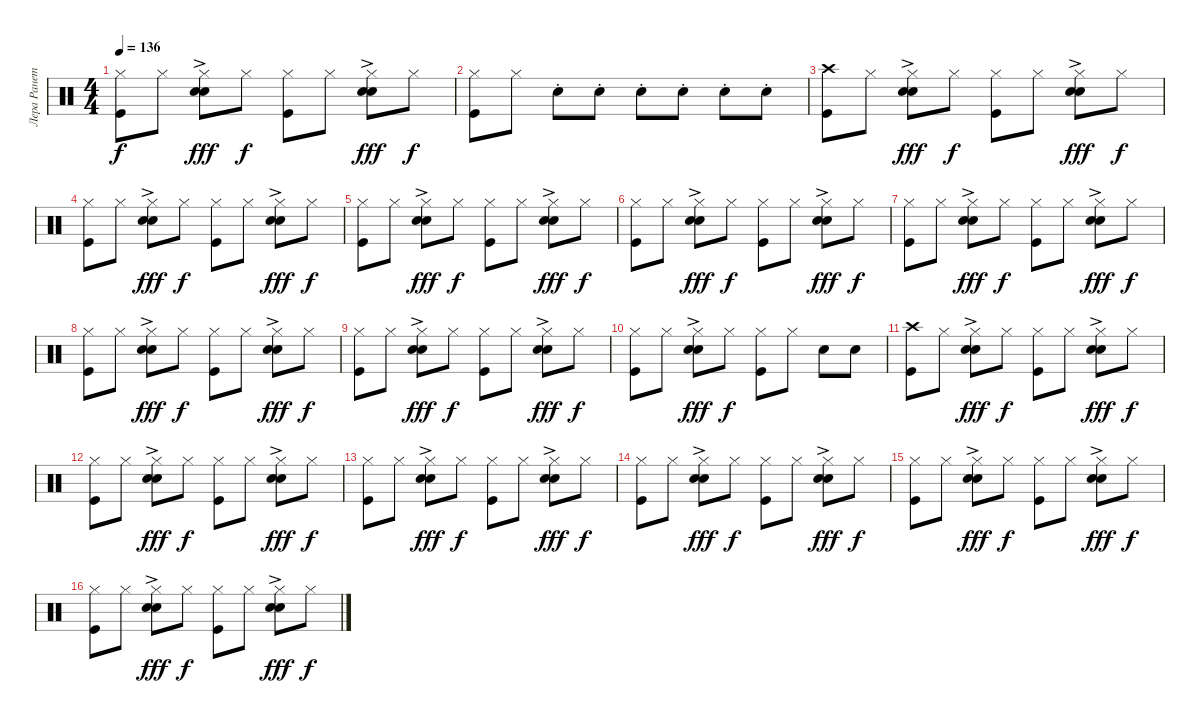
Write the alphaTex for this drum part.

\track ("Лера Ранетка" "Лера Ранет") {instrument percussion}
\staff {score}
\articulation defaults
\ts (4 4)
\tempo 136
\clef neutral
\ks c
("Hi-Hat (closed)" "Kick (hit)").8{dy f} "Hi-Hat (closed)".8 ("Hi-Hat (closed)" "Electric Snare (hit)" "Hand Clap (hit)"{ac}).8{dy fff} "Hi-Hat (closed)".8{dy f} ("Hi-Hat (closed)" "Kick (hit)").8 "Hi-Hat (closed)".8 ("Hi-Hat (closed)" "Electric Snare (hit)" "Hand Clap (hit)"{ac}).8{dy fff} "Hi-Hat (closed)".8{dy f} |
("Hi-Hat (closed)" "Kick (hit)").8 "Hi-Hat (closed)".8 "Electric Snare (hit)"{st}.8 "Electric Snare (hit)"{st}.8 "Electric Snare (hit)"{st}.8 "Electric Snare (hit)"{st}.8 "Electric Snare (hit)"{st}.8 "Electric Snare (hit)"{st}.8 |
("Crash high (hit)" "Kick (hit)").8 "Hi-Hat (closed)".8 ("Hi-Hat (closed)" "Electric Snare (hit)" "Hand Clap (hit)"{ac}).8{dy fff} "Hi-Hat (closed)".8{dy f} ("Hi-Hat (closed)" "Kick (hit)").8 "Hi-Hat (closed)".8 ("Hi-Hat (closed)" "Electric Snare (hit)" "Hand Clap (hit)"{ac}).8{dy fff} "Hi-Hat (closed)".8{dy f} |
("Hi-Hat (closed)" "Kick (hit)").8 "Hi-Hat (closed)".8 ("Hi-Hat (closed)" "Electric Snare (hit)" "Hand Clap (hit)"{ac}).8{dy fff} "Hi-Hat (closed)".8{dy f} ("Hi-Hat (closed)" "Kick (hit)").8 "Hi-Hat (closed)".8 ("Hi-Hat (closed)" "Electric Snare (hit)" "Hand Clap (hit)"{ac}).8{dy fff} "Hi-Hat (closed)".8{dy f} |
("Hi-Hat (closed)" "Kick (hit)").8 "Hi-Hat (closed)".8 ("Hi-Hat (closed)" "Electric Snare (hit)" "Hand Clap (hit)"{ac}).8{dy fff} "Hi-Hat (closed)".8{dy f} ("Hi-Hat (closed)" "Kick (hit)").8 "Hi-Hat (closed)".8 ("Hi-Hat (closed)" "Electric Snare (hit)" "Hand Clap (hit)"{ac}).8{dy fff} "Hi-Hat (closed)".8{dy f} |
("Hi-Hat (closed)" "Kick (hit)").8 "Hi-Hat (closed)".8 ("Hi-Hat (closed)" "Electric Snare (hit)" "Hand Clap (hit)"{ac}).8{dy fff} "Hi-Hat (closed)".8{dy f} ("Hi-Hat (closed)" "Kick (hit)").8 "Hi-Hat (closed)".8 ("Hi-Hat (closed)" "Electric Snare (hit)" "Hand Clap (hit)"{ac}).8{dy fff} "Hi-Hat (closed)".8{dy f} |
("Hi-Hat (closed)" "Kick (hit)").8 "Hi-Hat (closed)".8 ("Hi-Hat (closed)" "Electric Snare (hit)" "Hand Clap (hit)"{ac}).8{dy fff} "Hi-Hat (closed)".8{dy f} ("Hi-Hat (closed)" "Kick (hit)").8 "Hi-Hat (closed)".8 ("Hi-Hat (closed)" "Electric Snare (hit)" "Hand Clap (hit)"{ac}).8{dy fff} "Hi-Hat (closed)".8{dy f} |
("Hi-Hat (closed)" "Kick (hit)").8 "Hi-Hat (closed)".8 ("Hi-Hat (closed)" "Electric Snare (hit)" "Hand Clap (hit)"{ac}).8{dy fff} "Hi-Hat (closed)".8{dy f} ("Hi-Hat (closed)" "Kick (hit)").8 "Hi-Hat (closed)".8 ("Hi-Hat (closed)" "Electric Snare (hit)" "Hand Clap (hit)"{ac}).8{dy fff} "Hi-Hat (closed)".8{dy f} |
("Hi-Hat (closed)" "Kick (hit)").8 "Hi-Hat (closed)".8 ("Hi-Hat (closed)" "Electric Snare (hit)" "Hand Clap (hit)"{ac}).8{dy fff} "Hi-Hat (closed)".8{dy f} ("Hi-Hat (closed)" "Kick (hit)").8 "Hi-Hat (closed)".8 ("Hi-Hat (closed)" "Electric Snare (hit)" "Hand Clap (hit)"{ac}).8{dy fff} "Hi-Hat (closed)".8{dy f} |
("Hi-Hat (closed)" "Kick (hit)").8 "Hi-Hat (closed)".8 ("Hi-Hat (closed)" "Electric Snare (hit)" "Hand Clap (hit)"{ac}).8{dy fff} "Hi-Hat (closed)".8{dy f} ("Hi-Hat (closed)" "Kick (hit)").8 "Hi-Hat (closed)".8 "Electric Snare (hit)".8 "Electric Snare (hit)".8 |
("Crash high (hit)" "Kick (hit)").8 "Hi-Hat (closed)".8 ("Hi-Hat (closed)" "Electric Snare (hit)" "Hand Clap (hit)"{ac}).8{dy fff} "Hi-Hat (closed)".8{dy f} ("Hi-Hat (closed)" "Kick (hit)").8 "Hi-Hat (closed)".8 ("Hi-Hat (closed)" "Electric Snare (hit)" "Hand Clap (hit)"{ac}).8{dy fff} "Hi-Hat (closed)".8{dy f} |
("Hi-Hat (closed)" "Kick (hit)").8 "Hi-Hat (closed)".8 ("Hi-Hat (closed)" "Electric Snare (hit)" "Hand Clap (hit)"{ac}).8{dy fff} "Hi-Hat (closed)".8{dy f} ("Hi-Hat (closed)" "Kick (hit)").8 "Hi-Hat (closed)".8 ("Hi-Hat (closed)" "Electric Snare (hit)" "Hand Clap (hit)"{ac}).8{dy fff} "Hi-Hat (closed)".8{dy f} |
("Hi-Hat (closed)" "Kick (hit)").8 "Hi-Hat (closed)".8 ("Hi-Hat (closed)" "Electric Snare (hit)" "Hand Clap (hit)"{ac}).8{dy fff} "Hi-Hat (closed)".8{dy f} ("Hi-Hat (closed)" "Kick (hit)").8 "Hi-Hat (closed)".8 ("Hi-Hat (closed)" "Electric Snare (hit)" "Hand Clap (hit)"{ac}).8{dy fff} "Hi-Hat (closed)".8{dy f} |
("Hi-Hat (closed)" "Kick (hit)").8 "Hi-Hat (closed)".8 ("Hi-Hat (closed)" "Electric Snare (hit)" "Hand Clap (hit)"{ac}).8{dy fff} "Hi-Hat (closed)".8{dy f} ("Hi-Hat (closed)" "Kick (hit)").8 "Hi-Hat (closed)".8 ("Hi-Hat (closed)" "Electric Snare (hit)" "Hand Clap (hit)"{ac}).8{dy fff} "Hi-Hat (closed)".8{dy f} |
("Hi-Hat (closed)" "Kick (hit)").8 "Hi-Hat (closed)".8 ("Hi-Hat (closed)" "Electric Snare (hit)" "Hand Clap (hit)"{ac}).8{dy fff} "Hi-Hat (closed)".8{dy f} ("Hi-Hat (closed)" "Kick (hit)").8 "Hi-Hat (closed)".8 ("Hi-Hat (closed)" "Electric Snare (hit)" "Hand Clap (hit)"{ac}).8{dy fff} "Hi-Hat (closed)".8{dy f} |
("Hi-Hat (closed)" "Kick (hit)").8 "Hi-Hat (closed)".8 ("Hi-Hat (closed)" "Electric Snare (hit)" "Hand Clap (hit)"{ac}).8{dy fff} "Hi-Hat (closed)".8{dy f} ("Hi-Hat (closed)" "Kick (hit)").8 "Hi-Hat (closed)".8 ("Hi-Hat (closed)" "Electric Snare (hit)" "Hand Clap (hit)"{ac}).8{dy fff} "Hi-Hat (closed)".8{dy f}
